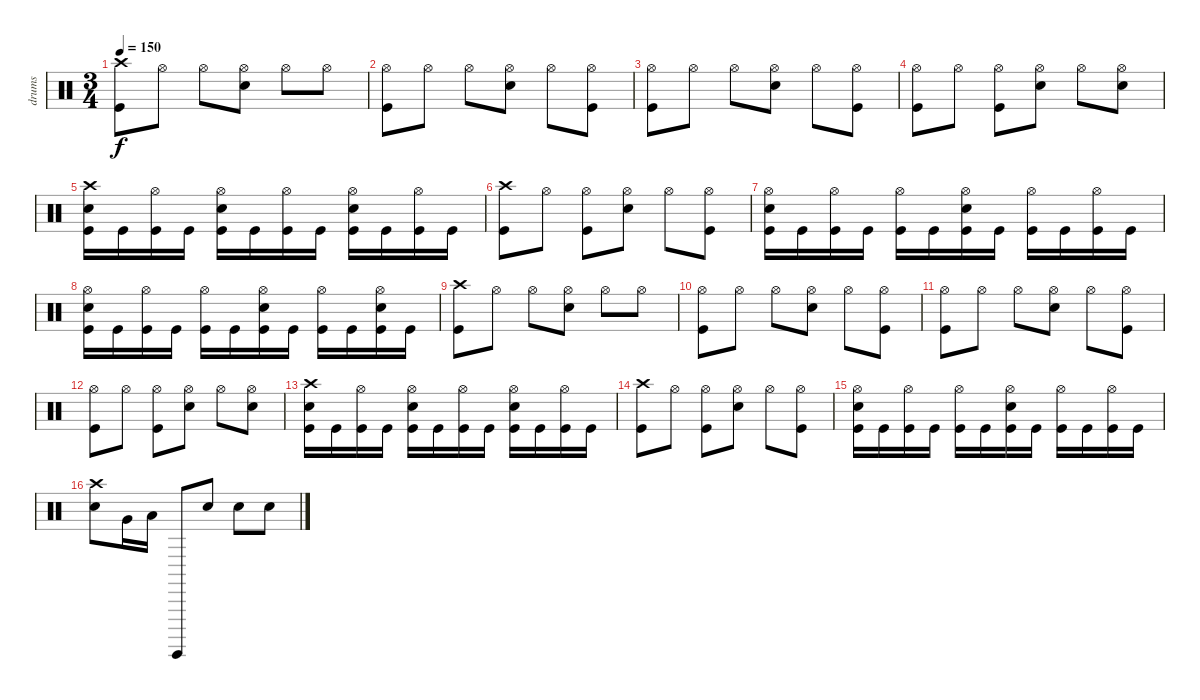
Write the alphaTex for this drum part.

\track ("drums" "drums") {instrument percussion}
\staff {score}
\articulation defaults
\ts (3 4)
\tempo 150
\clef neutral
\ks c
("Crash high (hit)" "Kick (hit)").8{dy f} "Hi-Hat (open)".8 "Hi-Hat (open)".8 ("Hi-Hat (open)" "Snare (hit) 2").8 "Hi-Hat (open)".8 "Hi-Hat (open)".8 |
("Hi-Hat (open)" "Kick (hit)").8 "Hi-Hat (open)".8 "Hi-Hat (open)".8 ("Hi-Hat (open)" "Snare (hit) 2").8 "Hi-Hat (open)".8 ("Hi-Hat (open)" "Kick (hit)").8 |
("Hi-Hat (open)" "Kick (hit)").8 "Hi-Hat (open)".8 "Hi-Hat (open)".8 ("Hi-Hat (open)" "Snare (hit) 2").8 "Hi-Hat (open)".8 ("Hi-Hat (open)" "Kick (hit)").8 |
("Hi-Hat (open)" "Kick (hit)").8 "Hi-Hat (open)".8 ("Hi-Hat (open)" "Kick (hit)").8 ("Hi-Hat (open)" "Snare (hit) 2").8 "Hi-Hat (open)".8 ("Hi-Hat (open)" "Snare (hit) 2").8 |
("Crash high (hit)" "Snare (hit) 2" "Kick (hit)").16 "Kick (hit)".16 ("Hi-Hat (open)" "Kick (hit)").16 "Kick (hit)".16 ("Hi-Hat (open)" "Snare (hit) 2" "Kick (hit)").16 "Kick (hit)".16 ("Hi-Hat (open)" "Kick (hit)").16 "Kick (hit)".16 ("Hi-Hat (open)" "Snare (hit) 2" "Kick (hit)").16 "Kick (hit)".16 ("Hi-Hat (open)" "Kick (hit)").16 "Kick (hit)".16 |
("Crash high (hit)" "Kick (hit)").8 "Hi-Hat (open)".8 ("Hi-Hat (open)" "Kick (hit)").8 ("Hi-Hat (open)" "Snare (hit) 2").8 "Hi-Hat (open)".8 ("Hi-Hat (open)" "Kick (hit)").8 |
("Hi-Hat (open)" "Snare (hit) 2" "Kick (hit)").16 "Kick (hit)".16 ("Hi-Hat (open)" "Kick (hit)").16 "Kick (hit)".16 ("Hi-Hat (open)" "Kick (hit)").16 "Kick (hit)".16 ("Hi-Hat (open)" "Snare (hit) 2" "Kick (hit)").16 "Kick (hit)".16 ("Hi-Hat (open)" "Kick (hit)").16 "Kick (hit)".16 ("Hi-Hat (open)" "Kick (hit)").16 "Kick (hit)".16 |
("Hi-Hat (open)" "Snare (hit) 2" "Kick (hit)").16 "Kick (hit)".16 ("Hi-Hat (open)" "Kick (hit)").16 "Kick (hit)".16 ("Hi-Hat (open)" "Kick (hit)").16 "Kick (hit)".16 ("Hi-Hat (open)" "Snare (hit) 2" "Kick (hit)").16 "Kick (hit)".16 ("Hi-Hat (open)" "Kick (hit)").16 "Kick (hit)".16 ("Hi-Hat (open)" "Snare (hit) 2" "Kick (hit)").16 "Kick (hit)".16 |
("Crash high (hit)" "Kick (hit)").8 "Hi-Hat (open)".8 "Hi-Hat (open)".8 ("Hi-Hat (open)" "Snare (hit) 2").8 "Hi-Hat (open)".8 "Hi-Hat (open)".8 |
("Hi-Hat (open)" "Kick (hit)").8 "Hi-Hat (open)".8 "Hi-Hat (open)".8 ("Hi-Hat (open)" "Snare (hit) 2").8 "Hi-Hat (open)".8 ("Hi-Hat (open)" "Kick (hit)").8 |
("Hi-Hat (open)" "Kick (hit)").8 "Hi-Hat (open)".8 "Hi-Hat (open)".8 ("Hi-Hat (open)" "Snare (hit) 2").8 "Hi-Hat (open)".8 ("Hi-Hat (open)" "Kick (hit)").8 |
("Hi-Hat (open)" "Kick (hit)").8 "Hi-Hat (open)".8 ("Hi-Hat (open)" "Kick (hit)").8 ("Hi-Hat (open)" "Snare (hit) 2").8 "Hi-Hat (open)".8 ("Hi-Hat (open)" "Snare (hit) 2").8 |
("Crash high (hit)" "Snare (hit) 2" "Kick (hit)").16 "Kick (hit)".16 ("Hi-Hat (open)" "Kick (hit)").16 "Kick (hit)".16 ("Hi-Hat (open)" "Snare (hit) 2" "Kick (hit)").16 "Kick (hit)".16 ("Hi-Hat (open)" "Kick (hit)").16 "Kick (hit)".16 ("Hi-Hat (open)" "Snare (hit) 2" "Kick (hit)").16 "Kick (hit)".16 ("Hi-Hat (open)" "Kick (hit)").16 "Kick (hit)".16 |
("Crash high (hit)" "Kick (hit)").8 "Hi-Hat (open)".8 ("Hi-Hat (open)" "Kick (hit)").8 ("Hi-Hat (open)" "Snare (hit) 2").8 "Hi-Hat (open)".8 ("Hi-Hat (open)" "Kick (hit)").8 |
("Hi-Hat (open)" "Snare (hit) 2" "Kick (hit)").16 "Kick (hit)".16 ("Hi-Hat (open)" "Kick (hit)").16 "Kick (hit)".16 ("Hi-Hat (open)" "Kick (hit)").16 "Kick (hit)".16 ("Hi-Hat (open)" "Snare (hit) 2" "Kick (hit)").16 "Kick (hit)".16 ("Hi-Hat (open)" "Kick (hit)").16 "Kick (hit)".16 ("Hi-Hat (open)" "Kick (hit)").16 "Kick (hit)".16 |
("Crash high (hit)" "Snare (hit) 2").8 "Very Low Tom (hit)".16 "Low Floor Tom (hit)".16 "Surdo (hit)".8 "Snare (hit) 2".8 "Snare (hit) 2".8 "Snare (hit) 2".8
